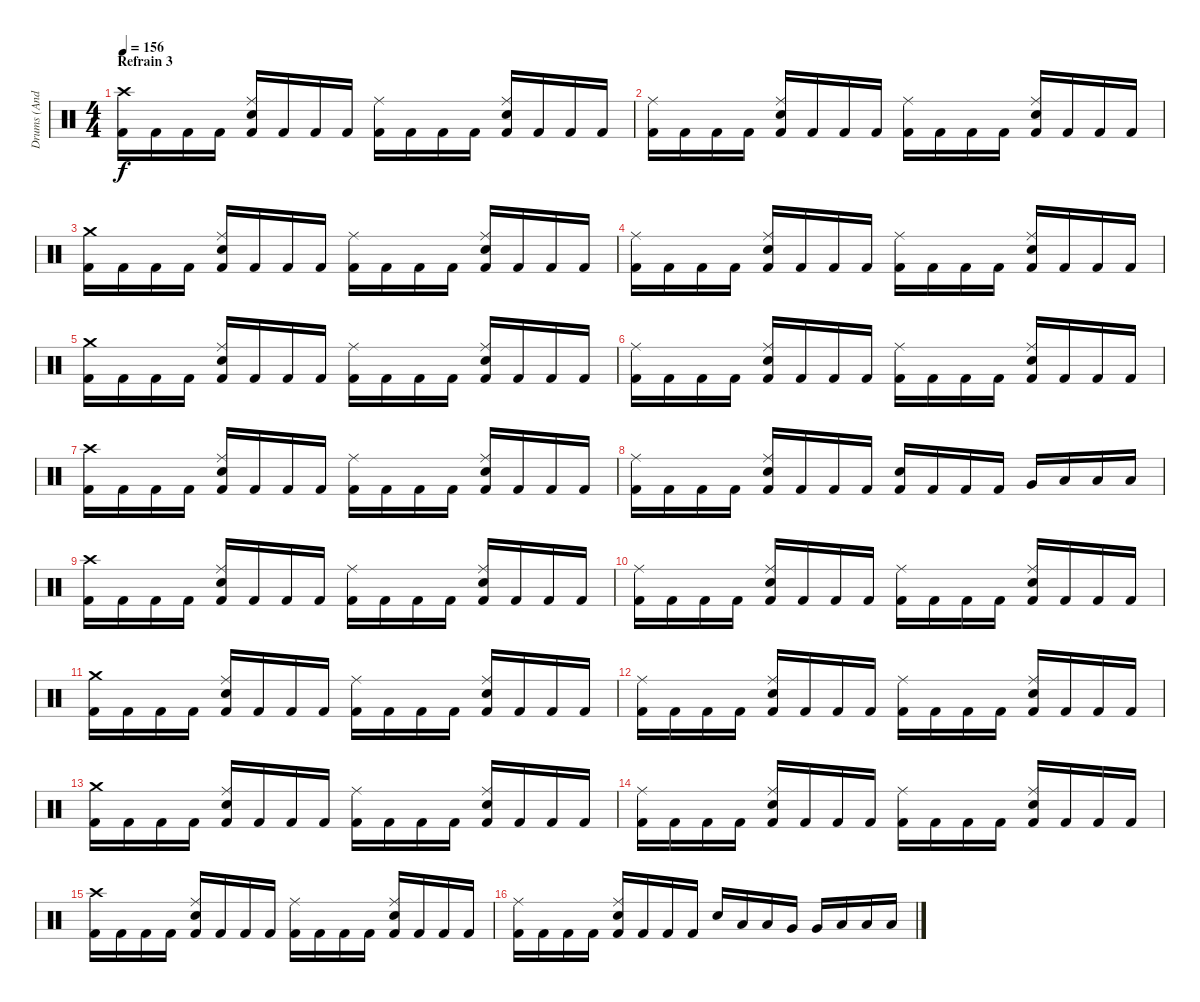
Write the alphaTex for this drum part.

\track ("Drums (Andy C)" "Drums (And") {instrument percussion}
\staff
\articulation defaults
\ts (4 4)
\section ("" "Refrain 3")
\tempo 156
\clef neutral
\ks c
("Crash high (hit)" "Kick (hit) 2").16{dy f} "Kick (hit) 2".16 "Kick (hit) 2".16 "Kick (hit) 2".16 ("Ride (middle)" "Kick (hit) 2" "Electric Snare (hit)").16 "Kick (hit) 2".16 "Kick (hit) 2".16 "Kick (hit) 2".16 ("Ride (middle)" "Kick (hit) 2").16 "Kick (hit) 2".16 "Kick (hit) 2".16 "Kick (hit) 2".16 ("Ride (middle)" "Kick (hit) 2" "Electric Snare (hit)").16 "Kick (hit) 2".16 "Kick (hit) 2".16 "Kick (hit) 2".16 |
("Ride (middle)" "Kick (hit) 2").16 "Kick (hit) 2".16 "Kick (hit) 2".16 "Kick (hit) 2".16 ("Ride (middle)" "Kick (hit) 2" "Electric Snare (hit)").16 "Kick (hit) 2".16 "Kick (hit) 2".16 "Kick (hit) 2".16 ("Ride (middle)" "Kick (hit) 2").16 "Kick (hit) 2".16 "Kick (hit) 2".16 "Kick (hit) 2".16 ("Ride (middle)" "Kick (hit) 2" "Electric Snare (hit)").16 "Kick (hit) 2".16 "Kick (hit) 2".16 "Kick (hit) 2".16 |
("Crash medium (hit)" "Kick (hit) 2").16 "Kick (hit) 2".16 "Kick (hit) 2".16 "Kick (hit) 2".16 ("Ride (middle)" "Kick (hit) 2" "Electric Snare (hit)").16 "Kick (hit) 2".16 "Kick (hit) 2".16 "Kick (hit) 2".16 ("Ride (middle)" "Kick (hit) 2").16 "Kick (hit) 2".16 "Kick (hit) 2".16 "Kick (hit) 2".16 ("Ride (middle)" "Kick (hit) 2" "Electric Snare (hit)").16 "Kick (hit) 2".16 "Kick (hit) 2".16 "Kick (hit) 2".16 |
("Ride (middle)" "Kick (hit) 2").16 "Kick (hit) 2".16 "Kick (hit) 2".16 "Kick (hit) 2".16 ("Ride (middle)" "Kick (hit) 2" "Electric Snare (hit)").16 "Kick (hit) 2".16 "Kick (hit) 2".16 "Kick (hit) 2".16 ("Ride (middle)" "Kick (hit) 2").16 "Kick (hit) 2".16 "Kick (hit) 2".16 "Kick (hit) 2".16 ("Ride (middle)" "Kick (hit) 2" "Electric Snare (hit)").16 "Kick (hit) 2".16 "Kick (hit) 2".16 "Kick (hit) 2".16 |
("Crash medium (hit)" "Kick (hit) 2").16 "Kick (hit) 2".16 "Kick (hit) 2".16 "Kick (hit) 2".16 ("Ride (middle)" "Kick (hit) 2" "Electric Snare (hit)").16 "Kick (hit) 2".16 "Kick (hit) 2".16 "Kick (hit) 2".16 ("Ride (middle)" "Kick (hit) 2").16 "Kick (hit) 2".16 "Kick (hit) 2".16 "Kick (hit) 2".16 ("Ride (middle)" "Kick (hit) 2" "Electric Snare (hit)").16 "Kick (hit) 2".16 "Kick (hit) 2".16 "Kick (hit) 2".16 |
("Ride (middle)" "Kick (hit) 2").16 "Kick (hit) 2".16 "Kick (hit) 2".16 "Kick (hit) 2".16 ("Ride (middle)" "Kick (hit) 2" "Electric Snare (hit)").16 "Kick (hit) 2".16 "Kick (hit) 2".16 "Kick (hit) 2".16 ("Ride (middle)" "Kick (hit) 2").16 "Kick (hit) 2".16 "Kick (hit) 2".16 "Kick (hit) 2".16 ("Ride (middle)" "Kick (hit) 2" "Electric Snare (hit)").16 "Kick (hit) 2".16 "Kick (hit) 2".16 "Kick (hit) 2".16 |
("Crash high (hit)" "Kick (hit) 2").16 "Kick (hit) 2".16 "Kick (hit) 2".16 "Kick (hit) 2".16 ("Ride (middle)" "Kick (hit) 2" "Electric Snare (hit)").16 "Kick (hit) 2".16 "Kick (hit) 2".16 "Kick (hit) 2".16 ("Ride (middle)" "Kick (hit) 2").16 "Kick (hit) 2".16 "Kick (hit) 2".16 "Kick (hit) 2".16 ("Ride (middle)" "Kick (hit) 2" "Electric Snare (hit)").16 "Kick (hit) 2".16 "Kick (hit) 2".16 "Kick (hit) 2".16 |
("Ride (middle)" "Kick (hit) 2").16 "Kick (hit) 2".16 "Kick (hit) 2".16 "Kick (hit) 2".16 ("Ride (middle)" "Kick (hit) 2" "Electric Snare (hit)").16 "Kick (hit) 2".16 "Kick (hit) 2".16 "Kick (hit) 2".16 ("Kick (hit) 2" "Electric Snare (hit)").16 "Kick (hit) 2".16 "Kick (hit) 2".16 "Kick (hit) 2".16 "Very Low Tom (hit)".16 "Low Floor Tom (hit)".16 "Low Floor Tom (hit)".16 "Low Floor Tom (hit)".16 |
("Crash high (hit)" "Kick (hit) 2").16 "Kick (hit) 2".16 "Kick (hit) 2".16 "Kick (hit) 2".16 ("Ride (middle)" "Kick (hit) 2" "Electric Snare (hit)").16 "Kick (hit) 2".16 "Kick (hit) 2".16 "Kick (hit) 2".16 ("Ride (middle)" "Kick (hit) 2").16 "Kick (hit) 2".16 "Kick (hit) 2".16 "Kick (hit) 2".16 ("Ride (middle)" "Kick (hit) 2" "Electric Snare (hit)").16 "Kick (hit) 2".16 "Kick (hit) 2".16 "Kick (hit) 2".16 |
("Ride (middle)" "Kick (hit) 2").16 "Kick (hit) 2".16 "Kick (hit) 2".16 "Kick (hit) 2".16 ("Ride (middle)" "Kick (hit) 2" "Electric Snare (hit)").16 "Kick (hit) 2".16 "Kick (hit) 2".16 "Kick (hit) 2".16 ("Ride (middle)" "Kick (hit) 2").16 "Kick (hit) 2".16 "Kick (hit) 2".16 "Kick (hit) 2".16 ("Ride (middle)" "Kick (hit) 2" "Electric Snare (hit)").16 "Kick (hit) 2".16 "Kick (hit) 2".16 "Kick (hit) 2".16 |
("Crash medium (hit)" "Kick (hit) 2").16 "Kick (hit) 2".16 "Kick (hit) 2".16 "Kick (hit) 2".16 ("Ride (middle)" "Kick (hit) 2" "Electric Snare (hit)").16 "Kick (hit) 2".16 "Kick (hit) 2".16 "Kick (hit) 2".16 ("Ride (middle)" "Kick (hit) 2").16 "Kick (hit) 2".16 "Kick (hit) 2".16 "Kick (hit) 2".16 ("Ride (middle)" "Kick (hit) 2" "Electric Snare (hit)").16 "Kick (hit) 2".16 "Kick (hit) 2".16 "Kick (hit) 2".16 |
("Ride (middle)" "Kick (hit) 2").16 "Kick (hit) 2".16 "Kick (hit) 2".16 "Kick (hit) 2".16 ("Ride (middle)" "Kick (hit) 2" "Electric Snare (hit)").16 "Kick (hit) 2".16 "Kick (hit) 2".16 "Kick (hit) 2".16 ("Ride (middle)" "Kick (hit) 2").16 "Kick (hit) 2".16 "Kick (hit) 2".16 "Kick (hit) 2".16 ("Ride (middle)" "Kick (hit) 2" "Electric Snare (hit)").16 "Kick (hit) 2".16 "Kick (hit) 2".16 "Kick (hit) 2".16 |
("Crash medium (hit)" "Kick (hit) 2").16 "Kick (hit) 2".16 "Kick (hit) 2".16 "Kick (hit) 2".16 ("Ride (middle)" "Kick (hit) 2" "Electric Snare (hit)").16 "Kick (hit) 2".16 "Kick (hit) 2".16 "Kick (hit) 2".16 ("Ride (middle)" "Kick (hit) 2").16 "Kick (hit) 2".16 "Kick (hit) 2".16 "Kick (hit) 2".16 ("Ride (middle)" "Kick (hit) 2" "Electric Snare (hit)").16 "Kick (hit) 2".16 "Kick (hit) 2".16 "Kick (hit) 2".16 |
("Ride (middle)" "Kick (hit) 2").16 "Kick (hit) 2".16 "Kick (hit) 2".16 "Kick (hit) 2".16 ("Ride (middle)" "Kick (hit) 2" "Electric Snare (hit)").16 "Kick (hit) 2".16 "Kick (hit) 2".16 "Kick (hit) 2".16 ("Ride (middle)" "Kick (hit) 2").16 "Kick (hit) 2".16 "Kick (hit) 2".16 "Kick (hit) 2".16 ("Ride (middle)" "Kick (hit) 2" "Electric Snare (hit)").16 "Kick (hit) 2".16 "Kick (hit) 2".16 "Kick (hit) 2".16 |
("Crash high (hit)" "Kick (hit) 2").16 "Kick (hit) 2".16 "Kick (hit) 2".16 "Kick (hit) 2".16 ("Ride (middle)" "Kick (hit) 2" "Electric Snare (hit)").16 "Kick (hit) 2".16 "Kick (hit) 2".16 "Kick (hit) 2".16 ("Ride (middle)" "Kick (hit) 2").16 "Kick (hit) 2".16 "Kick (hit) 2".16 "Kick (hit) 2".16 ("Ride (middle)" "Kick (hit) 2" "Electric Snare (hit)").16 "Kick (hit) 2".16 "Kick (hit) 2".16 "Kick (hit) 2".16 |
("Ride (middle)" "Kick (hit) 2").16 "Kick (hit) 2".16 "Kick (hit) 2".16 "Kick (hit) 2".16 ("Ride (middle)" "Kick (hit) 2" "Electric Snare (hit)").16 "Kick (hit) 2".16 "Kick (hit) 2".16 "Kick (hit) 2".16 "Electric Snare (hit)".16 "Low Tom (hit)".16 "Low Tom (hit)".16 "Very Low Tom (hit)".16 "Very Low Tom (hit)".16 "Low Floor Tom (hit)".16 "Low Floor Tom (hit)".16 "Low Floor Tom (hit)".16
